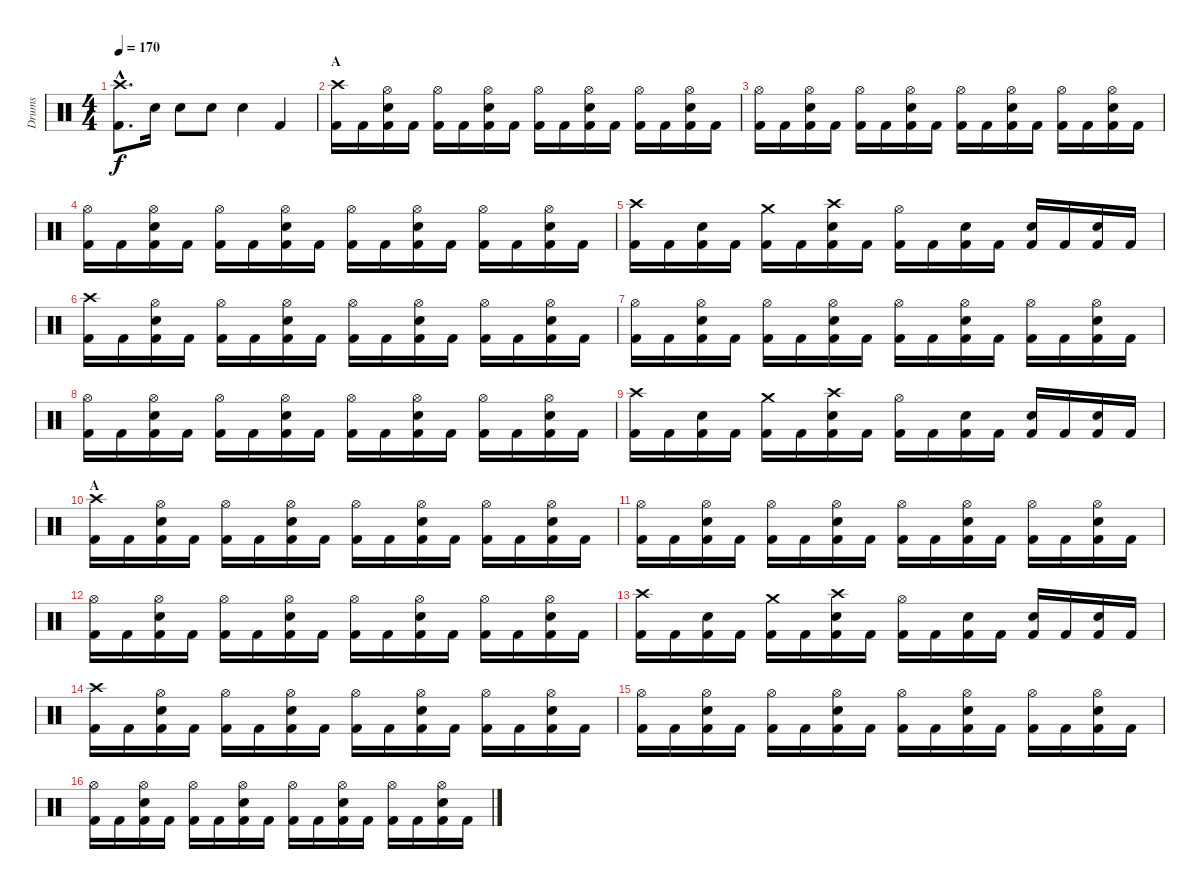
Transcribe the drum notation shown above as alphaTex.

\track ("Drums" "Drums") {instrument percussion}
\staff {score}
\articulation defaults
\ts (4 4)
\tempo 170
\clef neutral
\ks c
("Crash high (hit)"{hac} "Kick (hit) 2"{hac}).8{d dy f} "Electric Snare (hit)".16 "Electric Snare (hit)".8 "Electric Snare (hit)".8 "Electric Snare (hit)".4 "Kick (hit) 2".4 |
\section ("" "A")
("Crash high (hit)" "Kick (hit) 2").16 "Kick (hit) 2".16 ("Hi-Hat (open)" "Electric Snare (hit)" "Kick (hit) 2").16 "Kick (hit) 2".16 ("Hi-Hat (open)" "Kick (hit) 2").16 "Kick (hit) 2".16 ("Hi-Hat (open)" "Electric Snare (hit)" "Kick (hit) 2").16 "Kick (hit) 2".16 ("Hi-Hat (open)" "Kick (hit) 2").16 "Kick (hit) 2".16 ("Hi-Hat (open)" "Electric Snare (hit)" "Kick (hit) 2").16 "Kick (hit) 2".16 ("Hi-Hat (open)" "Kick (hit) 2").16 "Kick (hit) 2".16 ("Hi-Hat (open)" "Electric Snare (hit)" "Kick (hit) 2").16 "Kick (hit) 2".16 |
("Hi-Hat (open)" "Kick (hit) 2").16 "Kick (hit) 2".16 ("Hi-Hat (open)" "Electric Snare (hit)" "Kick (hit) 2").16 "Kick (hit) 2".16 ("Hi-Hat (open)" "Kick (hit) 2").16 "Kick (hit) 2".16 ("Hi-Hat (open)" "Electric Snare (hit)" "Kick (hit) 2").16 "Kick (hit) 2".16 ("Hi-Hat (open)" "Kick (hit) 2").16 "Kick (hit) 2".16 ("Hi-Hat (open)" "Electric Snare (hit)" "Kick (hit) 2").16 "Kick (hit) 2".16 ("Hi-Hat (open)" "Kick (hit) 2").16 "Kick (hit) 2".16 ("Hi-Hat (open)" "Electric Snare (hit)" "Kick (hit) 2").16 "Kick (hit) 2".16 |
("Hi-Hat (open)" "Kick (hit) 2").16 "Kick (hit) 2".16 ("Hi-Hat (open)" "Electric Snare (hit)" "Kick (hit) 2").16 "Kick (hit) 2".16 ("Hi-Hat (open)" "Kick (hit) 2").16 "Kick (hit) 2".16 ("Hi-Hat (open)" "Electric Snare (hit)" "Kick (hit) 2").16 "Kick (hit) 2".16 ("Hi-Hat (open)" "Kick (hit) 2").16 "Kick (hit) 2".16 ("Hi-Hat (open)" "Electric Snare (hit)" "Kick (hit) 2").16 "Kick (hit) 2".16 ("Hi-Hat (open)" "Kick (hit) 2").16 "Kick (hit) 2".16 ("Hi-Hat (open)" "Electric Snare (hit)" "Kick (hit) 2").16 "Kick (hit) 2".16 |
("Crash high (hit)" "Kick (hit) 2").16 "Kick (hit) 2".16 ("Electric Snare (hit)" "Kick (hit) 2").16 "Kick (hit) 2".16 ("Crash medium (hit)" "Kick (hit) 2").16 "Kick (hit) 2".16 ("Crash high (hit)" "Electric Snare (hit)" "Kick (hit) 2").16 "Kick (hit) 2".16 ("Hi-Hat (open)" "Kick (hit) 2").16 "Kick (hit) 2".16 ("Electric Snare (hit)" "Kick (hit) 2").16 "Kick (hit) 2".16 ("Electric Snare (hit)" "Kick (hit) 2").16 "Kick (hit) 2".16 ("Electric Snare (hit)" "Kick (hit) 2").16 "Kick (hit) 2".16 |
("Crash high (hit)" "Kick (hit) 2").16 "Kick (hit) 2".16 ("Hi-Hat (open)" "Electric Snare (hit)" "Kick (hit) 2").16 "Kick (hit) 2".16 ("Hi-Hat (open)" "Kick (hit) 2").16 "Kick (hit) 2".16 ("Hi-Hat (open)" "Electric Snare (hit)" "Kick (hit) 2").16 "Kick (hit) 2".16 ("Hi-Hat (open)" "Kick (hit) 2").16 "Kick (hit) 2".16 ("Hi-Hat (open)" "Electric Snare (hit)" "Kick (hit) 2").16 "Kick (hit) 2".16 ("Hi-Hat (open)" "Kick (hit) 2").16 "Kick (hit) 2".16 ("Hi-Hat (open)" "Electric Snare (hit)" "Kick (hit) 2").16 "Kick (hit) 2".16 |
("Hi-Hat (open)" "Kick (hit) 2").16 "Kick (hit) 2".16 ("Hi-Hat (open)" "Electric Snare (hit)" "Kick (hit) 2").16 "Kick (hit) 2".16 ("Hi-Hat (open)" "Kick (hit) 2").16 "Kick (hit) 2".16 ("Hi-Hat (open)" "Electric Snare (hit)" "Kick (hit) 2").16 "Kick (hit) 2".16 ("Hi-Hat (open)" "Kick (hit) 2").16 "Kick (hit) 2".16 ("Hi-Hat (open)" "Electric Snare (hit)" "Kick (hit) 2").16 "Kick (hit) 2".16 ("Hi-Hat (open)" "Kick (hit) 2").16 "Kick (hit) 2".16 ("Hi-Hat (open)" "Electric Snare (hit)" "Kick (hit) 2").16 "Kick (hit) 2".16 |
("Hi-Hat (open)" "Kick (hit) 2").16 "Kick (hit) 2".16 ("Hi-Hat (open)" "Electric Snare (hit)" "Kick (hit) 2").16 "Kick (hit) 2".16 ("Hi-Hat (open)" "Kick (hit) 2").16 "Kick (hit) 2".16 ("Hi-Hat (open)" "Electric Snare (hit)" "Kick (hit) 2").16 "Kick (hit) 2".16 ("Hi-Hat (open)" "Kick (hit) 2").16 "Kick (hit) 2".16 ("Hi-Hat (open)" "Electric Snare (hit)" "Kick (hit) 2").16 "Kick (hit) 2".16 ("Hi-Hat (open)" "Kick (hit) 2").16 "Kick (hit) 2".16 ("Hi-Hat (open)" "Electric Snare (hit)" "Kick (hit) 2").16 "Kick (hit) 2".16 |
("Crash high (hit)" "Kick (hit) 2").16 "Kick (hit) 2".16 ("Electric Snare (hit)" "Kick (hit) 2").16 "Kick (hit) 2".16 ("Crash medium (hit)" "Kick (hit) 2").16 "Kick (hit) 2".16 ("Crash high (hit)" "Electric Snare (hit)" "Kick (hit) 2").16 "Kick (hit) 2".16 ("Hi-Hat (open)" "Kick (hit) 2").16 "Kick (hit) 2".16 ("Electric Snare (hit)" "Kick (hit) 2").16 "Kick (hit) 2".16 ("Electric Snare (hit)" "Kick (hit) 2").16 "Kick (hit) 2".16 ("Electric Snare (hit)" "Kick (hit) 2").16 "Kick (hit) 2".16 |
\section ("" "A")
("Crash high (hit)" "Kick (hit) 2").16 "Kick (hit) 2".16 ("Hi-Hat (open)" "Electric Snare (hit)" "Kick (hit) 2").16 "Kick (hit) 2".16 ("Hi-Hat (open)" "Kick (hit) 2").16 "Kick (hit) 2".16 ("Hi-Hat (open)" "Electric Snare (hit)" "Kick (hit) 2").16 "Kick (hit) 2".16 ("Hi-Hat (open)" "Kick (hit) 2").16 "Kick (hit) 2".16 ("Hi-Hat (open)" "Electric Snare (hit)" "Kick (hit) 2").16 "Kick (hit) 2".16 ("Hi-Hat (open)" "Kick (hit) 2").16 "Kick (hit) 2".16 ("Hi-Hat (open)" "Electric Snare (hit)" "Kick (hit) 2").16 "Kick (hit) 2".16 |
("Hi-Hat (open)" "Kick (hit) 2").16 "Kick (hit) 2".16 ("Hi-Hat (open)" "Electric Snare (hit)" "Kick (hit) 2").16 "Kick (hit) 2".16 ("Hi-Hat (open)" "Kick (hit) 2").16 "Kick (hit) 2".16 ("Hi-Hat (open)" "Electric Snare (hit)" "Kick (hit) 2").16 "Kick (hit) 2".16 ("Hi-Hat (open)" "Kick (hit) 2").16 "Kick (hit) 2".16 ("Hi-Hat (open)" "Electric Snare (hit)" "Kick (hit) 2").16 "Kick (hit) 2".16 ("Hi-Hat (open)" "Kick (hit) 2").16 "Kick (hit) 2".16 ("Hi-Hat (open)" "Electric Snare (hit)" "Kick (hit) 2").16 "Kick (hit) 2".16 |
("Hi-Hat (open)" "Kick (hit) 2").16 "Kick (hit) 2".16 ("Hi-Hat (open)" "Electric Snare (hit)" "Kick (hit) 2").16 "Kick (hit) 2".16 ("Hi-Hat (open)" "Kick (hit) 2").16 "Kick (hit) 2".16 ("Hi-Hat (open)" "Electric Snare (hit)" "Kick (hit) 2").16 "Kick (hit) 2".16 ("Hi-Hat (open)" "Kick (hit) 2").16 "Kick (hit) 2".16 ("Hi-Hat (open)" "Electric Snare (hit)" "Kick (hit) 2").16 "Kick (hit) 2".16 ("Hi-Hat (open)" "Kick (hit) 2").16 "Kick (hit) 2".16 ("Hi-Hat (open)" "Electric Snare (hit)" "Kick (hit) 2").16 "Kick (hit) 2".16 |
("Crash high (hit)" "Kick (hit) 2").16 "Kick (hit) 2".16 ("Electric Snare (hit)" "Kick (hit) 2").16 "Kick (hit) 2".16 ("Crash medium (hit)" "Kick (hit) 2").16 "Kick (hit) 2".16 ("Crash high (hit)" "Electric Snare (hit)" "Kick (hit) 2").16 "Kick (hit) 2".16 ("Hi-Hat (open)" "Kick (hit) 2").16 "Kick (hit) 2".16 ("Electric Snare (hit)" "Kick (hit) 2").16 "Kick (hit) 2".16 ("Electric Snare (hit)" "Kick (hit) 2").16 "Kick (hit) 2".16 ("Electric Snare (hit)" "Kick (hit) 2").16 "Kick (hit) 2".16 |
("Crash high (hit)" "Kick (hit) 2").16 "Kick (hit) 2".16 ("Hi-Hat (open)" "Electric Snare (hit)" "Kick (hit) 2").16 "Kick (hit) 2".16 ("Hi-Hat (open)" "Kick (hit) 2").16 "Kick (hit) 2".16 ("Hi-Hat (open)" "Electric Snare (hit)" "Kick (hit) 2").16 "Kick (hit) 2".16 ("Hi-Hat (open)" "Kick (hit) 2").16 "Kick (hit) 2".16 ("Hi-Hat (open)" "Electric Snare (hit)" "Kick (hit) 2").16 "Kick (hit) 2".16 ("Hi-Hat (open)" "Kick (hit) 2").16 "Kick (hit) 2".16 ("Hi-Hat (open)" "Electric Snare (hit)" "Kick (hit) 2").16 "Kick (hit) 2".16 |
("Hi-Hat (open)" "Kick (hit) 2").16 "Kick (hit) 2".16 ("Hi-Hat (open)" "Electric Snare (hit)" "Kick (hit) 2").16 "Kick (hit) 2".16 ("Hi-Hat (open)" "Kick (hit) 2").16 "Kick (hit) 2".16 ("Hi-Hat (open)" "Electric Snare (hit)" "Kick (hit) 2").16 "Kick (hit) 2".16 ("Hi-Hat (open)" "Kick (hit) 2").16 "Kick (hit) 2".16 ("Hi-Hat (open)" "Electric Snare (hit)" "Kick (hit) 2").16 "Kick (hit) 2".16 ("Hi-Hat (open)" "Kick (hit) 2").16 "Kick (hit) 2".16 ("Hi-Hat (open)" "Electric Snare (hit)" "Kick (hit) 2").16 "Kick (hit) 2".16 |
("Hi-Hat (open)" "Kick (hit) 2").16 "Kick (hit) 2".16 ("Hi-Hat (open)" "Electric Snare (hit)" "Kick (hit) 2").16 "Kick (hit) 2".16 ("Hi-Hat (open)" "Kick (hit) 2").16 "Kick (hit) 2".16 ("Hi-Hat (open)" "Electric Snare (hit)" "Kick (hit) 2").16 "Kick (hit) 2".16 ("Hi-Hat (open)" "Kick (hit) 2").16 "Kick (hit) 2".16 ("Hi-Hat (open)" "Electric Snare (hit)" "Kick (hit) 2").16 "Kick (hit) 2".16 ("Hi-Hat (open)" "Kick (hit) 2").16 "Kick (hit) 2".16 ("Hi-Hat (open)" "Electric Snare (hit)" "Kick (hit) 2").16 "Kick (hit) 2".16
